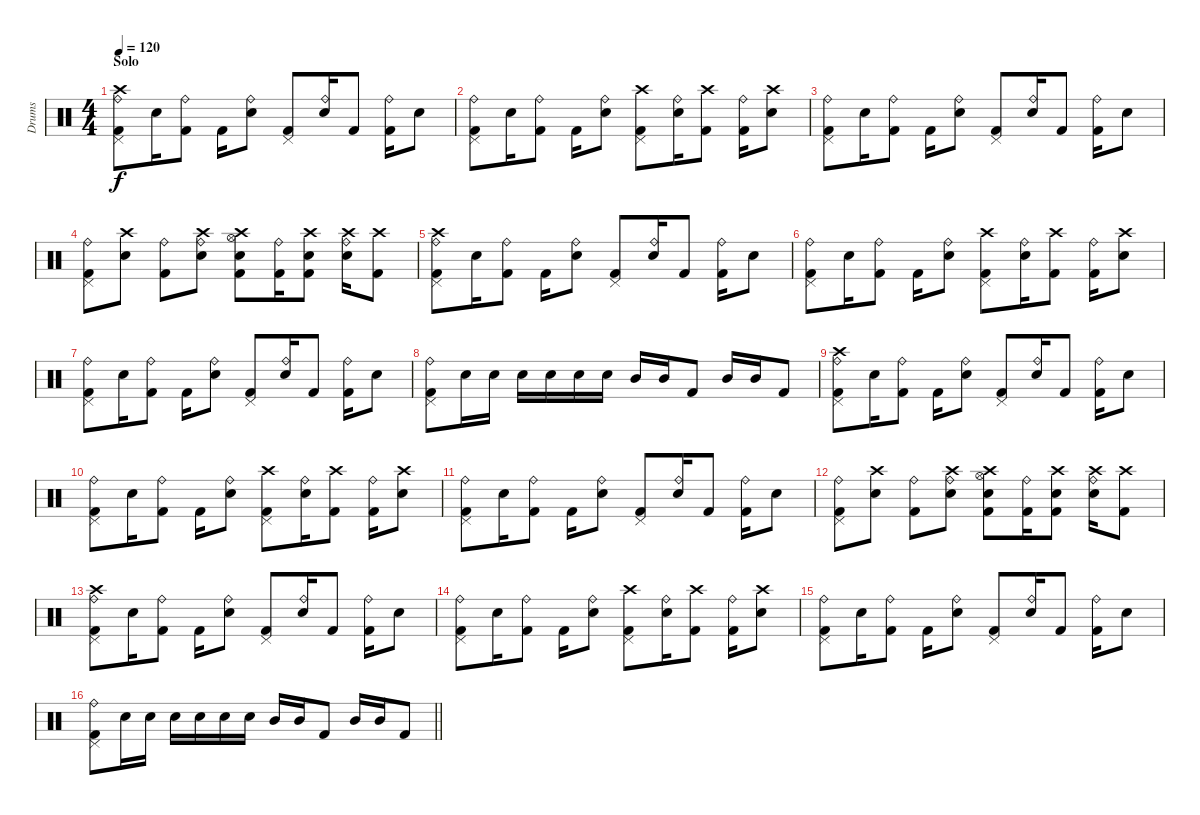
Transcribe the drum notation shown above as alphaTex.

\track ("Drums" "Drums") {instrument percussion}
\staff {score}
\articulation defaults
\ts (4 4)
\section ("" "Solo")
\tempo 120
\clef neutral
\ks c
("Ride (bell)" "Pedal Hi-Hat (hit)" "Crash high (hit)" "Kick (hit) 2").8{txt " " dy f} "Electric Snare (hit)".16 ("Ride (bell)" "Kick (hit) 2").8 "Kick (hit) 2".16 ("Ride (bell)" "Electric Snare (hit)").8 ("Pedal Hi-Hat (hit)" "Kick (hit) 2").8 ("Ride (bell)" "Electric Snare (hit)").16 "Kick (hit) 2".8 ("Ride (bell)" "Kick (hit) 2").16 "Electric Snare (hit)".8 |
("Ride (bell)" "Pedal Hi-Hat (hit)" "Kick (hit) 2").8 "Electric Snare (hit)".16 ("Ride (bell)" "Kick (hit) 2").8 "Kick (hit) 2".16 ("Ride (bell)" "Electric Snare (hit)").8 ("Pedal Hi-Hat (hit)" "Crash high (hit)" "Kick (hit) 2").8 ("Ride (bell)" "Electric Snare (hit)").16 ("Crash high (hit)" "Kick (hit) 2").8 ("Ride (bell)" "Kick (hit) 2").16 ("Electric Snare (hit)" "Crash high (hit)").8 |
("Ride (bell)" "Pedal Hi-Hat (hit)" "Kick (hit) 2").8 "Electric Snare (hit)".16 ("Ride (bell)" "Kick (hit) 2").8 "Kick (hit) 2".16 ("Ride (bell)" "Electric Snare (hit)").8 ("Pedal Hi-Hat (hit)" "Kick (hit) 2").8 ("Ride (bell)" "Electric Snare (hit)").16 "Kick (hit) 2".8 ("Ride (bell)" "Kick (hit) 2").16 "Electric Snare (hit)".8 |
("Ride (bell)" "Pedal Hi-Hat (hit)" "Kick (hit) 2").8 ("Electric Snare (hit)" "Crash high (hit)").8 ("Ride (bell)" "Kick (hit) 2").8 ("Ride (bell)" "Electric Snare (hit)" "Crash high (hit)").8 ("Electric Snare (hit)" "Hi-Hat (open)" "Crash high (hit)" "Kick (hit) 2").8 ("Ride (bell)" "Kick (hit) 2").16 ("Electric Snare (hit)" "Crash high (hit)" "Kick (hit) 2").8 ("Ride (bell)" "Electric Snare (hit)" "Crash high (hit)").16 ("Crash high (hit)" "Kick (hit) 2").8 |
("Ride (bell)" "Pedal Hi-Hat (hit)" "Crash high (hit)" "Kick (hit) 2").8 "Electric Snare (hit)".16 ("Ride (bell)" "Kick (hit) 2").8 "Kick (hit) 2".16 ("Ride (bell)" "Electric Snare (hit)").8 ("Pedal Hi-Hat (hit)" "Kick (hit) 2").8 ("Ride (bell)" "Electric Snare (hit)").16 "Kick (hit) 2".8 ("Ride (bell)" "Kick (hit) 2").16 "Electric Snare (hit)".8 |
("Ride (bell)" "Pedal Hi-Hat (hit)" "Kick (hit) 2").8 "Electric Snare (hit)".16 ("Ride (bell)" "Kick (hit) 2").8 "Kick (hit) 2".16 ("Ride (bell)" "Electric Snare (hit)").8 ("Pedal Hi-Hat (hit)" "Crash high (hit)" "Kick (hit) 2").8 ("Ride (bell)" "Electric Snare (hit)").16 ("Crash high (hit)" "Kick (hit) 2").8 ("Ride (bell)" "Kick (hit) 2").16 ("Electric Snare (hit)" "Crash high (hit)").8 |
("Ride (bell)" "Pedal Hi-Hat (hit)" "Kick (hit) 2").8 "Electric Snare (hit)".16 ("Ride (bell)" "Kick (hit) 2").8 "Kick (hit) 2".16 ("Ride (bell)" "Electric Snare (hit)").8 ("Pedal Hi-Hat (hit)" "Kick (hit) 2").8 ("Ride (bell)" "Electric Snare (hit)").16 "Kick (hit) 2".8 ("Ride (bell)" "Kick (hit) 2").16 "Electric Snare (hit)".8 |
("Ride (bell)" "Pedal Hi-Hat (hit)" "Kick (hit) 2").8 "Electric Snare (hit)".16 "Electric Snare (hit)".16 "Electric Snare (hit)".16 "Electric Snare (hit)".16 "Electric Snare (hit)".16 "Electric Snare (hit)".16 "Mid Tom (hit)".16 "Mid Tom (hit)".16 "Kick (hit) 2".8 "Mid Tom (hit)".16 "Mid Tom (hit)".16 "Kick (hit) 2".8 |
("Ride (bell)" "Pedal Hi-Hat (hit)" "Crash high (hit)" "Kick (hit) 2").8 "Electric Snare (hit)".16 ("Ride (bell)" "Kick (hit) 2").8 "Kick (hit) 2".16 ("Ride (bell)" "Electric Snare (hit)").8 ("Pedal Hi-Hat (hit)" "Kick (hit) 2").8 ("Ride (bell)" "Electric Snare (hit)").16 "Kick (hit) 2".8 ("Ride (bell)" "Kick (hit) 2").16 "Electric Snare (hit)".8 |
("Ride (bell)" "Pedal Hi-Hat (hit)" "Kick (hit) 2").8 "Electric Snare (hit)".16 ("Ride (bell)" "Kick (hit) 2").8 "Kick (hit) 2".16 ("Ride (bell)" "Electric Snare (hit)").8 ("Pedal Hi-Hat (hit)" "Crash high (hit)" "Kick (hit) 2").8 ("Ride (bell)" "Electric Snare (hit)").16 ("Crash high (hit)" "Kick (hit) 2").8 ("Ride (bell)" "Kick (hit) 2").16 ("Electric Snare (hit)" "Crash high (hit)").8 |
("Ride (bell)" "Pedal Hi-Hat (hit)" "Kick (hit) 2").8 "Electric Snare (hit)".16 ("Ride (bell)" "Kick (hit) 2").8 "Kick (hit) 2".16 ("Ride (bell)" "Electric Snare (hit)").8 ("Pedal Hi-Hat (hit)" "Kick (hit) 2").8 ("Ride (bell)" "Electric Snare (hit)").16 "Kick (hit) 2".8 ("Ride (bell)" "Kick (hit) 2").16 "Electric Snare (hit)".8 |
("Ride (bell)" "Pedal Hi-Hat (hit)" "Kick (hit) 2").8 ("Electric Snare (hit)" "Crash high (hit)").8 ("Ride (bell)" "Kick (hit) 2").8 ("Ride (bell)" "Electric Snare (hit)" "Crash high (hit)").8 ("Electric Snare (hit)" "Hi-Hat (open)" "Crash high (hit)" "Kick (hit) 2").8 ("Ride (bell)" "Kick (hit) 2").16 ("Electric Snare (hit)" "Crash high (hit)" "Kick (hit) 2").8 ("Ride (bell)" "Electric Snare (hit)" "Crash high (hit)").16 ("Crash high (hit)" "Kick (hit) 2").8 |
("Ride (bell)" "Pedal Hi-Hat (hit)" "Crash high (hit)" "Kick (hit) 2").8 "Electric Snare (hit)".16 ("Ride (bell)" "Kick (hit) 2").8 "Kick (hit) 2".16 ("Ride (bell)" "Electric Snare (hit)").8 ("Pedal Hi-Hat (hit)" "Kick (hit) 2").8 ("Ride (bell)" "Electric Snare (hit)").16 "Kick (hit) 2".8 ("Ride (bell)" "Kick (hit) 2").16 "Electric Snare (hit)".8 |
("Ride (bell)" "Pedal Hi-Hat (hit)" "Kick (hit) 2").8 "Electric Snare (hit)".16 ("Ride (bell)" "Kick (hit) 2").8 "Kick (hit) 2".16 ("Ride (bell)" "Electric Snare (hit)").8 ("Pedal Hi-Hat (hit)" "Crash high (hit)" "Kick (hit) 2").8 ("Ride (bell)" "Electric Snare (hit)").16 ("Crash high (hit)" "Kick (hit) 2").8 ("Ride (bell)" "Kick (hit) 2").16 ("Electric Snare (hit)" "Crash high (hit)").8 |
("Ride (bell)" "Pedal Hi-Hat (hit)" "Kick (hit) 2").8 "Electric Snare (hit)".16 ("Ride (bell)" "Kick (hit) 2").8 "Kick (hit) 2".16 ("Ride (bell)" "Electric Snare (hit)").8 ("Pedal Hi-Hat (hit)" "Kick (hit) 2").8 ("Ride (bell)" "Electric Snare (hit)").16 "Kick (hit) 2".8 ("Ride (bell)" "Kick (hit) 2").16 "Electric Snare (hit)".8 |
\barLineRight lightlight
("Ride (bell)" "Pedal Hi-Hat (hit)" "Kick (hit) 2").8 "Electric Snare (hit)".16 "Electric Snare (hit)".16 "Electric Snare (hit)".16 "Electric Snare (hit)".16 "Electric Snare (hit)".16 "Electric Snare (hit)".16 "Mid Tom (hit)".16 "Mid Tom (hit)".16 "Kick (hit) 2".8 "Mid Tom (hit)".16 "Mid Tom (hit)".16 "Kick (hit) 2".8
